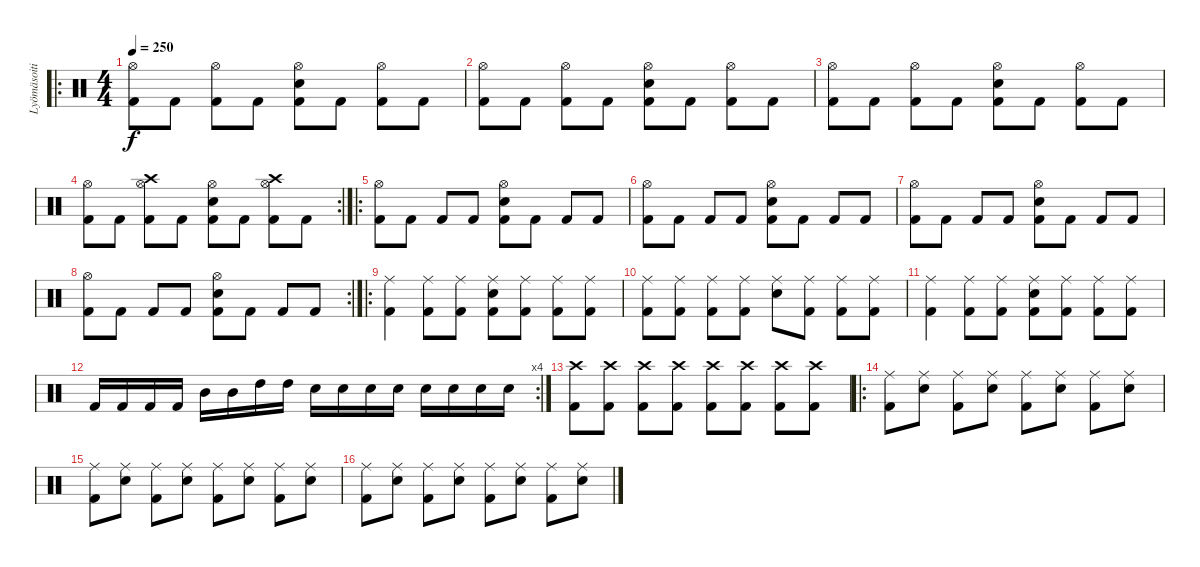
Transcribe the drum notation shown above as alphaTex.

\track ("Lyömäsoitin" "Lyömäsoiti") {instrument percussion}
\staff {score}
\articulation defaults
\ro
\ts (4 4)
\tempo 250
\clef neutral
\ks c
("Hi-Hat (open)" "Kick (hit) 2").8{dy f} "Kick (hit) 2".8 ("Hi-Hat (open)" "Kick (hit) 2").8 "Kick (hit) 2".8 ("Electric Snare (hit)" "Hi-Hat (open)" "Kick (hit) 2").8 "Kick (hit) 2".8 ("Hi-Hat (open)" "Kick (hit) 2").8 "Kick (hit) 2".8 |
("Hi-Hat (open)" "Kick (hit) 2").8 "Kick (hit) 2".8 ("Hi-Hat (open)" "Kick (hit) 2").8 "Kick (hit) 2".8 ("Electric Snare (hit)" "Hi-Hat (open)" "Kick (hit) 2").8 "Kick (hit) 2".8 ("Hi-Hat (open)" "Kick (hit) 2").8 "Kick (hit) 2".8 |
("Hi-Hat (open)" "Kick (hit) 2").8 "Kick (hit) 2".8 ("Hi-Hat (open)" "Kick (hit) 2").8 "Kick (hit) 2".8 ("Electric Snare (hit)" "Hi-Hat (open)" "Kick (hit) 2").8 "Kick (hit) 2".8 ("Hi-Hat (open)" "Kick (hit) 2").8 "Kick (hit) 2".8 |
\rc 2
("Hi-Hat (open)" "Kick (hit) 2").8 "Kick (hit) 2".8 ("Crash high (hit)" "Hi-Hat (open)" "Kick (hit) 2").8 "Kick (hit) 2".8 ("Electric Snare (hit)" "Hi-Hat (open)" "Kick (hit) 2").8 "Kick (hit) 2".8 ("Crash high (hit)" "Hi-Hat (open)" "Kick (hit) 2").8 "Kick (hit) 2".8 |
\ro
("Hi-Hat (open)" "Kick (hit) 2").8 "Kick (hit) 2".8 "Kick (hit) 2".8 "Kick (hit) 2".8 ("Electric Snare (hit)" "Hi-Hat (open)" "Kick (hit) 2").8 "Kick (hit) 2".8 "Kick (hit) 2".8 "Kick (hit) 2".8 |
("Hi-Hat (open)" "Kick (hit) 2").8 "Kick (hit) 2".8 "Kick (hit) 2".8 "Kick (hit) 2".8 ("Electric Snare (hit)" "Hi-Hat (open)" "Kick (hit) 2").8 "Kick (hit) 2".8 "Kick (hit) 2".8 "Kick (hit) 2".8 |
("Hi-Hat (open)" "Kick (hit) 2").8 "Kick (hit) 2".8 "Kick (hit) 2".8 "Kick (hit) 2".8 ("Electric Snare (hit)" "Hi-Hat (open)" "Kick (hit) 2").8 "Kick (hit) 2".8 "Kick (hit) 2".8 "Kick (hit) 2".8 |
\rc 2
("Hi-Hat (open)" "Kick (hit) 2").8 "Kick (hit) 2".8 "Kick (hit) 2".8 "Kick (hit) 2".8 ("Electric Snare (hit)" "Hi-Hat (open)" "Kick (hit) 2").8 "Kick (hit) 2".8 "Kick (hit) 2".8 "Kick (hit) 2".8 |
\ro
("Ride (middle)" "Kick (hit) 2").4 ("Ride (middle)" "Kick (hit) 2").8 ("Ride (middle)" "Kick (hit) 2").8 ("Ride (middle)" "Electric Snare (hit)" "Kick (hit) 2").8 ("Ride (middle)" "Kick (hit) 2").8 ("Ride (middle)" "Kick (hit) 2").8 ("Ride (middle)" "Kick (hit) 2").8 |
("Ride (middle)" "Kick (hit) 2").8 ("Ride (middle)" "Kick (hit) 2").8 ("Ride (middle)" "Kick (hit) 2").8 ("Ride (middle)" "Kick (hit) 2").8 ("Ride (middle)" "Electric Snare (hit)").8 ("Ride (middle)" "Kick (hit) 2").8 ("Ride (middle)" "Kick (hit) 2").8 ("Ride (middle)" "Kick (hit) 2").8 |
("Ride (middle)" "Kick (hit) 2").4 ("Ride (middle)" "Kick (hit) 2").8 ("Ride (middle)" "Kick (hit) 2").8 ("Ride (middle)" "Electric Snare (hit)" "Kick (hit) 2").8 ("Ride (middle)" "Kick (hit) 2").8 ("Ride (middle)" "Kick (hit) 2").8 ("Ride (middle)" "Kick (hit) 2").8 |
\rc 4 "Kick (hit) 2".16 "Kick (hit) 2".16 "Kick (hit) 2".16 "Kick (hit) 2".16 "Mid Tom (hit)".16 "Mid Tom (hit)".16 "High Tom (hit)".16 "High Tom (hit)".16 "Electric Snare (hit)".16 "Electric Snare (hit)".16 "Electric Snare (hit)".16 "Electric Snare (hit)".16 "Electric Snare (hit)".16 "Electric Snare (hit)".16 "Electric Snare (hit)".16 "Electric Snare (hit)".16
|
("Crash high (hit)" "Kick (hit) 2").8 ("Crash high (hit)" "Kick (hit) 2").8 ("Crash high (hit)" "Kick (hit) 2").8 ("Crash high (hit)" "Kick (hit) 2").8 ("Crash high (hit)" "Kick (hit) 2").8 ("Crash high (hit)" "Kick (hit) 2").8 ("Crash high (hit)" "Kick (hit) 2").8 ("Crash high (hit)" "Kick (hit) 2").8 |
\ro
("Ride (middle)" "Kick (hit) 2").8 ("Ride (middle)" "Electric Snare (hit)").8 ("Ride (middle)" "Kick (hit) 2").8 ("Ride (middle)" "Electric Snare (hit)").8 ("Ride (middle)" "Kick (hit) 2").8 ("Ride (middle)" "Electric Snare (hit)").8 ("Ride (middle)" "Kick (hit) 2").8 ("Ride (middle)" "Electric Snare (hit)").8 |
("Ride (middle)" "Kick (hit) 2").8 ("Ride (middle)" "Electric Snare (hit)").8 ("Ride (middle)" "Kick (hit) 2").8 ("Ride (middle)" "Electric Snare (hit)").8 ("Ride (middle)" "Kick (hit) 2").8 ("Ride (middle)" "Electric Snare (hit)").8 ("Ride (middle)" "Kick (hit) 2").8 ("Ride (middle)" "Electric Snare (hit)").8 |
("Ride (middle)" "Kick (hit) 2").8 ("Ride (middle)" "Electric Snare (hit)").8 ("Ride (middle)" "Kick (hit) 2").8 ("Ride (middle)" "Electric Snare (hit)").8 ("Ride (middle)" "Kick (hit) 2").8 ("Ride (middle)" "Electric Snare (hit)").8 ("Ride (middle)" "Kick (hit) 2").8 ("Ride (middle)" "Electric Snare (hit)").8
